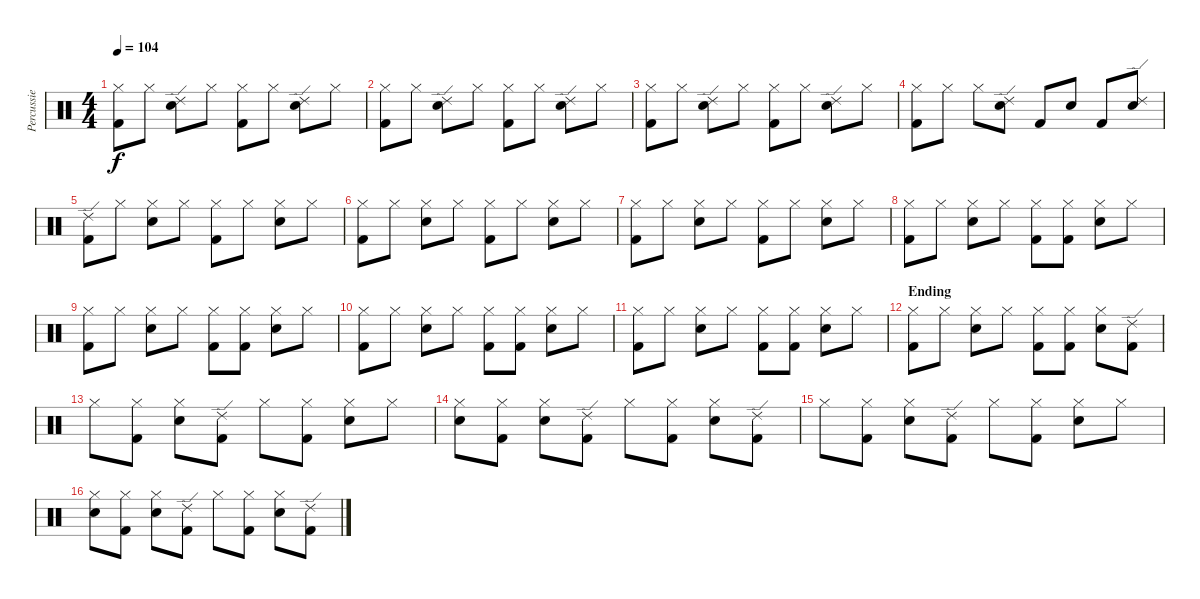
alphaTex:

\track ("Percussie" "Percussie") {instrument percussion}
\staff {score}
\articulation defaults
\ts (4 4)
\tempo 104
\clef neutral
\ks c
("Hi-Hat (closed)" "Kick (hit) 2").8{dy f} "Hi-Hat (closed)".8 ("Snare (hit) 2" "Ride (edge) 2").8 "Hi-Hat (closed)".8 ("Hi-Hat (closed)" "Kick (hit) 2").8 "Hi-Hat (closed)".8 ("Snare (hit) 2" "Ride (edge) 2").8 "Hi-Hat (closed)".8 |
("Hi-Hat (closed)" "Kick (hit) 2").8 "Hi-Hat (closed)".8 ("Snare (hit) 2" "Ride (edge) 2").8 "Hi-Hat (closed)".8 ("Hi-Hat (closed)" "Kick (hit) 2").8 "Hi-Hat (closed)".8 ("Snare (hit) 2" "Ride (edge) 2").8 "Hi-Hat (closed)".8 |
("Hi-Hat (closed)" "Kick (hit) 2").8 "Hi-Hat (closed)".8 ("Snare (hit) 2" "Ride (edge) 2").8 "Hi-Hat (closed)".8 ("Hi-Hat (closed)" "Kick (hit) 2").8 "Hi-Hat (closed)".8 ("Snare (hit) 2" "Ride (edge) 2").8 "Hi-Hat (closed)".8 |
("Hi-Hat (closed)" "Kick (hit) 2").8 "Hi-Hat (closed)".8 "Hi-Hat (closed)".8 ("Snare (hit) 2" "Ride (edge) 2").8 "Kick (hit) 2".8 "Snare (hit) 2".8 "Kick (hit) 2".8 ("Snare (hit) 2" "Ride (edge) 2").8 |
("Kick (hit) 2" "Ride (edge) 2").8 "Hi-Hat (closed)".8 ("Hi-Hat (closed)" "Snare (hit) 2").8 "Hi-Hat (closed)".8 ("Hi-Hat (closed)" "Kick (hit) 2").8 "Hi-Hat (closed)".8 ("Hi-Hat (closed)" "Snare (hit) 2").8 "Hi-Hat (closed)".8 |
("Hi-Hat (closed)" "Kick (hit) 2").8 "Hi-Hat (closed)".8 ("Hi-Hat (closed)" "Snare (hit) 2").8 "Hi-Hat (closed)".8 ("Hi-Hat (closed)" "Kick (hit) 2").8 "Hi-Hat (closed)".8 ("Hi-Hat (closed)" "Snare (hit) 2").8 "Hi-Hat (closed)".8 |
("Hi-Hat (closed)" "Kick (hit) 2").8 "Hi-Hat (closed)".8 ("Hi-Hat (closed)" "Snare (hit) 2").8 "Hi-Hat (closed)".8 ("Hi-Hat (closed)" "Kick (hit) 2").8 "Hi-Hat (closed)".8 ("Hi-Hat (closed)" "Snare (hit) 2").8 "Hi-Hat (closed)".8 |
("Hi-Hat (closed)" "Kick (hit) 2").8 "Hi-Hat (closed)".8 ("Hi-Hat (closed)" "Snare (hit) 2").8 "Hi-Hat (closed)".8 ("Hi-Hat (closed)" "Kick (hit) 2").8 ("Hi-Hat (closed)" "Kick (hit) 2").8 ("Hi-Hat (closed)" "Snare (hit) 2").8 "Hi-Hat (closed)".8 |
("Hi-Hat (closed)" "Kick (hit) 2").8 "Hi-Hat (closed)".8 ("Hi-Hat (closed)" "Snare (hit) 2").8 "Hi-Hat (closed)".8 ("Hi-Hat (closed)" "Kick (hit) 2").8 ("Hi-Hat (closed)" "Kick (hit) 2").8 ("Hi-Hat (closed)" "Snare (hit) 2").8 "Hi-Hat (closed)".8 |
("Hi-Hat (closed)" "Kick (hit) 2").8 "Hi-Hat (closed)".8 ("Hi-Hat (closed)" "Snare (hit) 2").8 "Hi-Hat (closed)".8 ("Hi-Hat (closed)" "Kick (hit) 2").8 ("Hi-Hat (closed)" "Kick (hit) 2").8 ("Hi-Hat (closed)" "Snare (hit) 2").8 "Hi-Hat (closed)".8 |
("Hi-Hat (closed)" "Kick (hit) 2").8 "Hi-Hat (closed)".8 ("Hi-Hat (closed)" "Snare (hit) 2").8 "Hi-Hat (closed)".8 ("Hi-Hat (closed)" "Kick (hit) 2").8 ("Hi-Hat (closed)" "Kick (hit) 2").8 ("Hi-Hat (closed)" "Snare (hit) 2").8 "Hi-Hat (closed)".8 |
\section ("" "Ending")
("Hi-Hat (closed)" "Kick (hit) 2").8 "Hi-Hat (closed)".8 ("Hi-Hat (closed)" "Snare (hit) 2").8 "Hi-Hat (closed)".8 ("Hi-Hat (closed)" "Kick (hit) 2").8 ("Hi-Hat (closed)" "Kick (hit) 2").8 ("Hi-Hat (closed)" "Snare (hit) 2").8 ("Kick (hit) 2" "Ride (edge) 2").8 |
"Hi-Hat (closed)".8 ("Hi-Hat (closed)" "Kick (hit) 2").8 ("Hi-Hat (closed)" "Snare (hit) 2").8 ("Kick (hit) 2" "Ride (edge) 2").8 "Hi-Hat (closed)".8 ("Hi-Hat (closed)" "Kick (hit) 2").8 ("Hi-Hat (closed)" "Snare (hit) 2").8 "Hi-Hat (closed)".8 |
("Hi-Hat (closed)" "Snare (hit) 2").8 ("Hi-Hat (closed)" "Kick (hit) 2").8 ("Hi-Hat (closed)" "Snare (hit) 2").8 ("Kick (hit) 2" "Ride (edge) 2").8 "Hi-Hat (closed)".8 ("Hi-Hat (closed)" "Kick (hit) 2").8 ("Hi-Hat (closed)" "Snare (hit) 2").8 ("Kick (hit) 2" "Ride (edge) 2").8 |
"Hi-Hat (closed)".8 ("Hi-Hat (closed)" "Kick (hit) 2").8 ("Hi-Hat (closed)" "Snare (hit) 2").8 ("Kick (hit) 2" "Ride (edge) 2").8 "Hi-Hat (closed)".8 ("Hi-Hat (closed)" "Kick (hit) 2").8 ("Hi-Hat (closed)" "Snare (hit) 2").8 "Hi-Hat (closed)".8 |
("Hi-Hat (closed)" "Snare (hit) 2").8 ("Hi-Hat (closed)" "Kick (hit) 2").8 ("Hi-Hat (closed)" "Snare (hit) 2").8 ("Kick (hit) 2" "Ride (edge) 2").8 "Hi-Hat (closed)".8 ("Hi-Hat (closed)" "Kick (hit) 2").8 ("Hi-Hat (closed)" "Snare (hit) 2").8 ("Kick (hit) 2" "Ride (edge) 2").8
